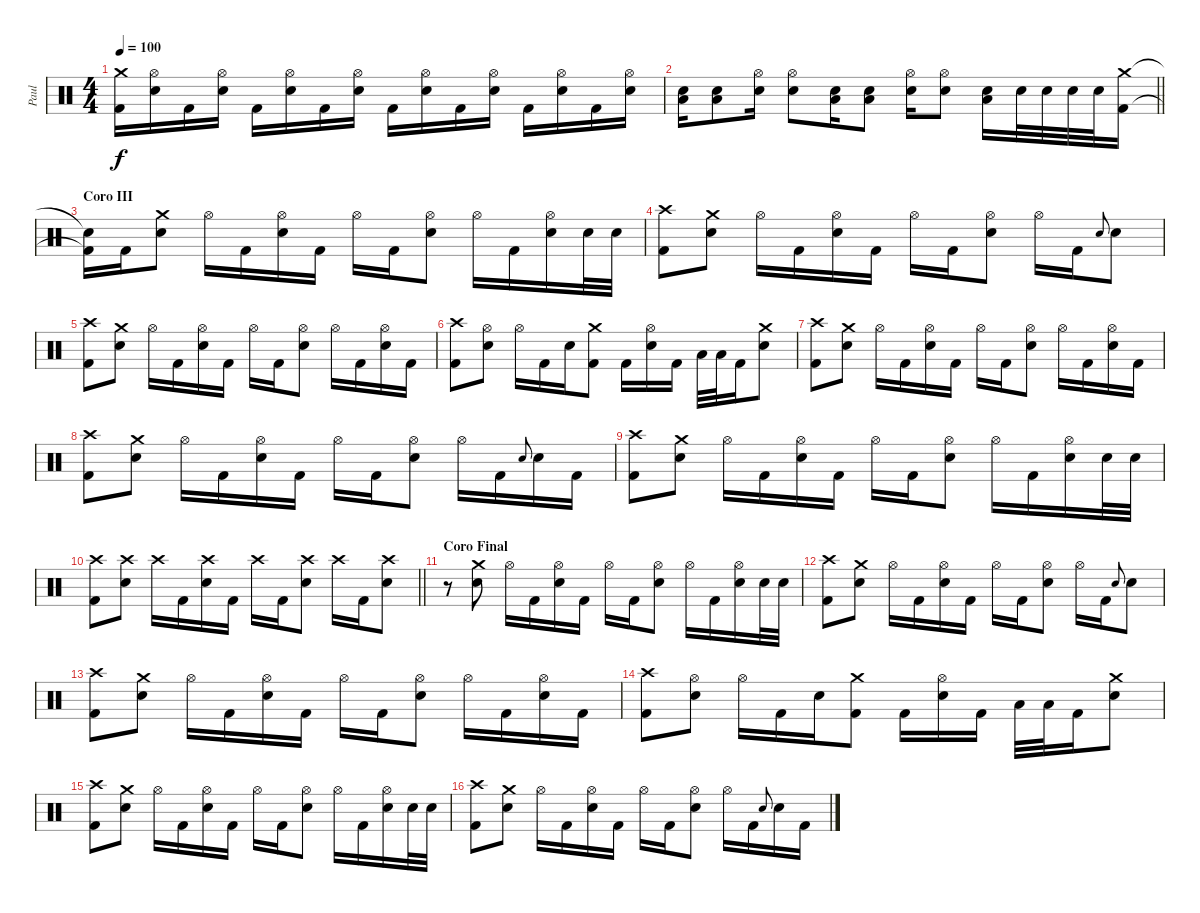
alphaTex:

\track ("Paul" "Paul") {instrument percussion}
\staff
\articulation defaults
\ts (4 4)
\tempo 100
\clef neutral
\ks c
("Crash medium (hit)" "Kick (hit) 2").16{dy f} ("Hi-Hat (open)" "Electric Snare (hit)").16 "Kick (hit) 2".16 ("Hi-Hat (open)" "Electric Snare (hit)").16 "Kick (hit) 2".16 ("Hi-Hat (open)" "Electric Snare (hit)").16 "Kick (hit) 2".16 ("Hi-Hat (open)" "Electric Snare (hit)").16 "Kick (hit) 2".16 ("Hi-Hat (open)" "Electric Snare (hit)").16 "Kick (hit) 2".16 ("Hi-Hat (open)" "Electric Snare (hit)").16 "Kick (hit) 2".16 ("Hi-Hat (open)" "Electric Snare (hit)").16 "Kick (hit) 2".16 ("Hi-Hat (open)" "Electric Snare (hit)").16 |
\barLineRight lightlight
("Electric Snare (hit)" "Low Floor Tom (hit)").16 ("Electric Snare (hit)" "Low Floor Tom (hit)").8 ("Hi-Hat (open)" "Electric Snare (hit)").16 ("Hi-Hat (open)" "Electric Snare (hit)").8 ("Electric Snare (hit)" "Low Floor Tom (hit)").16 ("Electric Snare (hit)" "Low Floor Tom (hit)").8 ("Hi-Hat (open)" "Electric Snare (hit)").16 ("Hi-Hat (open)" "Electric Snare (hit)").8 ("Electric Snare (hit)" "Low Floor Tom (hit)").16 "Electric Snare (hit)".32 "Electric Snare (hit)".32 "Electric Snare (hit)".32 "Electric Snare (hit)".32 ("Crash medium (hit)" "Kick (hit) 2").16 |
\section ("" "Coro III")
("Snare (hit)"{t} "Kick (hit) 2"{t}).16 "Kick (hit) 2".16 ("Crash medium (hit)" "Electric Snare (hit)").8 "Hi-Hat (open)".16 "Kick (hit) 2".16 ("Hi-Hat (open)" "Electric Snare (hit)").16 "Kick (hit) 2".16 "Hi-Hat (open)".16 "Kick (hit) 2".16 ("Hi-Hat (open)" "Electric Snare (hit)").8 "Hi-Hat (open)".16 "Kick (hit) 2".16 ("Hi-Hat (open)" "Electric Snare (hit)").16 "Electric Snare (hit)".32 "Electric Snare (hit)".32 |
("Crash high (hit)" "Kick (hit) 2").8 ("Crash medium (hit)" "Electric Snare (hit)").8 "Hi-Hat (open)".16 "Kick (hit) 2".16 ("Hi-Hat (open)" "Electric Snare (hit)").16 "Kick (hit) 2".16 "Hi-Hat (open)".16 "Kick (hit) 2".16 ("Hi-Hat (open)" "Electric Snare (hit)").8 "Hi-Hat (open)".16 "Kick (hit) 2".16 "Electric Snare (hit)".8{gr onbeat} "Electric Snare (hit)".8 |
("Crash high (hit)" "Kick (hit) 2").8 ("Crash medium (hit)" "Electric Snare (hit)").8 "Hi-Hat (open)".16 "Kick (hit) 2".16 ("Hi-Hat (open)" "Electric Snare (hit)").16 "Kick (hit) 2".16 "Hi-Hat (open)".16 "Kick (hit) 2".16 ("Hi-Hat (open)" "Electric Snare (hit)").8 "Hi-Hat (open)".16 "Kick (hit) 2".16 ("Hi-Hat (open)" "Electric Snare (hit)").16 "Kick (hit) 2".16 |
("Crash high (hit)" "Kick (hit) 2").8 ("Hi-Hat (open)" "Electric Snare (hit)").8 "Hi-Hat (open)".16 "Kick (hit) 2".16 "Electric Snare (hit)".16 ("Crash medium (hit)" "Kick (hit) 2").8 "Kick (hit) 2".16 ("Hi-Hat (open)" "Electric Snare (hit)").16 "Kick (hit) 2".16 "Low Tom (hit)".32 "Low Tom (hit)".32 "Kick (hit) 2".16 ("Crash medium (hit)" "Electric Snare (hit)").8 |
("Crash high (hit)" "Kick (hit) 2").8 ("Crash medium (hit)" "Electric Snare (hit)").8 "Hi-Hat (open)".16 "Kick (hit) 2".16 ("Hi-Hat (open)" "Electric Snare (hit)").16 "Kick (hit) 2".16 "Hi-Hat (open)".16 "Kick (hit) 2".16 ("Hi-Hat (open)" "Electric Snare (hit)").8 "Hi-Hat (open)".16 "Kick (hit) 2".16 ("Hi-Hat (open)" "Electric Snare (hit)").16 "Kick (hit) 2".16 |
("Crash high (hit)" "Kick (hit) 2").8 ("Crash medium (hit)" "Electric Snare (hit)").8 "Hi-Hat (open)".16 "Kick (hit) 2".16 ("Hi-Hat (open)" "Electric Snare (hit)").16 "Kick (hit) 2".16 "Hi-Hat (open)".16 "Kick (hit) 2".16 ("Hi-Hat (open)" "Electric Snare (hit)").8 "Hi-Hat (open)".16 "Kick (hit) 2".16 "Electric Snare (hit)".8{gr onbeat} "Electric Snare (hit)".16 "Kick (hit) 2".16 |
("Crash high (hit)" "Kick (hit) 2").8 ("Crash medium (hit)" "Electric Snare (hit)").8 "Hi-Hat (open)".16 "Kick (hit) 2".16 ("Hi-Hat (open)" "Electric Snare (hit)").16 "Kick (hit) 2".16 "Hi-Hat (open)".16 "Kick (hit) 2".16 ("Hi-Hat (open)" "Electric Snare (hit)").8 "Hi-Hat (open)".16 "Kick (hit) 2".16 ("Hi-Hat (open)" "Electric Snare (hit)").16 "Electric Snare (hit)".32 "Electric Snare (hit)".32 |
\barLineRight lightlight
("Crash high (hit)" "Kick (hit) 2").8 ("Crash high (hit)" "Electric Snare (hit)").8 "Crash high (hit)".16 "Kick (hit) 2".16 ("Crash high (hit)" "Electric Snare (hit)").16 "Kick (hit) 2".16 "Crash high (hit)".16 "Kick (hit) 2".16 ("Crash high (hit)" "Electric Snare (hit)").8 "Crash high (hit)".16 "Kick (hit) 2".16 ("Crash high (hit)" "Electric Snare (hit)").8 |
\section ("" "Coro Final")
r.8{volume 0} ("Crash medium (hit)" "Electric Snare (hit)").8{volume 16} "Hi-Hat (open)".16 "Kick (hit) 2".16 ("Hi-Hat (open)" "Electric Snare (hit)").16 "Kick (hit) 2".16 "Hi-Hat (open)".16 "Kick (hit) 2".16 ("Hi-Hat (open)" "Electric Snare (hit)").8 "Hi-Hat (open)".16 "Kick (hit) 2".16 ("Hi-Hat (open)" "Electric Snare (hit)").16 "Electric Snare (hit)".32 "Electric Snare (hit)".32 |
("Crash high (hit)" "Kick (hit) 2").8 ("Crash medium (hit)" "Electric Snare (hit)").8 "Hi-Hat (open)".16 "Kick (hit) 2".16 ("Hi-Hat (open)" "Electric Snare (hit)").16 "Kick (hit) 2".16 "Hi-Hat (open)".16 "Kick (hit) 2".16 ("Hi-Hat (open)" "Electric Snare (hit)").8 "Hi-Hat (open)".16 "Kick (hit) 2".16 "Electric Snare (hit)".8{gr onbeat} "Electric Snare (hit)".8 |
("Crash high (hit)" "Kick (hit) 2").8 ("Crash medium (hit)" "Electric Snare (hit)").8 "Hi-Hat (open)".16 "Kick (hit) 2".16 ("Hi-Hat (open)" "Electric Snare (hit)").16 "Kick (hit) 2".16 "Hi-Hat (open)".16 "Kick (hit) 2".16 ("Hi-Hat (open)" "Electric Snare (hit)").8 "Hi-Hat (open)".16 "Kick (hit) 2".16 ("Hi-Hat (open)" "Electric Snare (hit)").16 "Kick (hit) 2".16 |
("Crash high (hit)" "Kick (hit) 2").8 ("Hi-Hat (open)" "Electric Snare (hit)").8 "Hi-Hat (open)".16 "Kick (hit) 2".16 "Electric Snare (hit)".16 ("Crash medium (hit)" "Kick (hit) 2").8 "Kick (hit) 2".16 ("Hi-Hat (open)" "Electric Snare (hit)").16 "Kick (hit) 2".16 "Low Tom (hit)".32 "Low Tom (hit)".32 "Kick (hit) 2".16 ("Crash medium (hit)" "Electric Snare (hit)").8 |
("Crash high (hit)" "Kick (hit) 2").8 ("Crash medium (hit)" "Electric Snare (hit)").8 "Hi-Hat (open)".16 "Kick (hit) 2".16 ("Hi-Hat (open)" "Electric Snare (hit)").16 "Kick (hit) 2".16 "Hi-Hat (open)".16 "Kick (hit) 2".16 ("Hi-Hat (open)" "Electric Snare (hit)").8 "Hi-Hat (open)".16 "Kick (hit) 2".16 ("Hi-Hat (open)" "Electric Snare (hit)").16 "Electric Snare (hit)".32 "Electric Snare (hit)".32 |
("Crash high (hit)" "Kick (hit) 2").8 ("Crash medium (hit)" "Electric Snare (hit)").8 "Hi-Hat (open)".16 "Kick (hit) 2".16 ("Hi-Hat (open)" "Electric Snare (hit)").16 "Kick (hit) 2".16 "Hi-Hat (open)".16 "Kick (hit) 2".16 ("Hi-Hat (open)" "Electric Snare (hit)").8 "Hi-Hat (open)".16 "Kick (hit) 2".16 "Electric Snare (hit)".8{gr onbeat} "Electric Snare (hit)".16 "Kick (hit) 2".16
